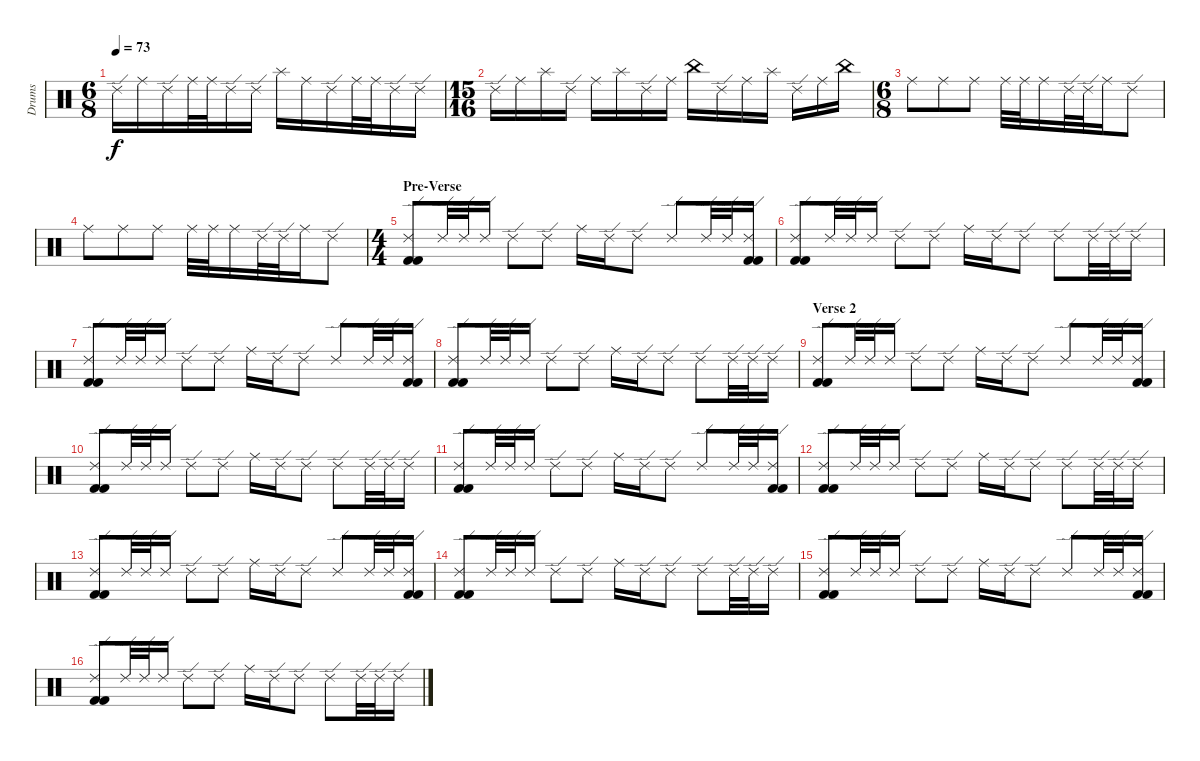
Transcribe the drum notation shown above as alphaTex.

\track ("Drums" "Drums") {instrument percussion}
\staff {score}
\articulation defaults
\ts (6 8)
\tempo 73
\clef neutral
\ks c "Ride (edge) 2".16{dy f} "Ride (middle)".16 "Ride (edge) 2".16 "Ride (middle)".32 "Ride (middle)".32 "Ride (edge) 2".16 "Ride (edge) 2".16 "Splash (hit)".16 "Ride (middle)".16 "Ride (edge) 2".16 "Ride (middle)".32 "Ride (middle)".32 "Ride (edge) 2".16 "Ride (edge) 2".16
|
\ts (15 16)
"Ride (edge) 2".16 "Ride (middle)".16 "Splash (hit)".16 "Ride (edge) 2".16 "Ride (middle)".16 "Splash (hit)".16 "Ride (edge) 2".16 "Ride (middle)".16 "China (hit)".16 "Ride (edge) 2".16 "Ride (middle)".16 "Splash (hit)".16 "Ride (edge) 2".16 "Ride (middle)".16 "China (hit)".16 |
\ts (6 8)
"Ride (middle)".8 "Ride (middle)".8 "Ride (middle)".8 "Ride (middle)".32 "Ride (middle)".32 "Ride (middle)".16 "Ride (edge) 2".32 "Ride (edge) 2".32 "Ride (middle)".16 "Ride (edge) 2".8 |
"Ride (middle)".8 "Ride (middle)".8 "Ride (middle)".8 "Ride (middle)".32 "Ride (middle)".32 "Ride (middle)".16 "Ride (edge) 2".32 "Ride (edge) 2".32 "Ride (middle)".16 "Ride (edge) 2".8 |
\ts (4 4)
\section ("" "Pre-Verse")
("Ride (edge) 2" "Kick (hit) 2" "Kick (hit) 2").8 "Ride (edge) 2".32 "Ride (edge) 2".32 "Ride (edge) 2".16 "Ride (edge) 2".8 "Ride (edge) 2".8 "Ride (middle)".16 "Ride (edge) 2".16 "Ride (edge) 2".8 "Ride (edge) 2".8 "Ride (edge) 2".32 "Ride (edge) 2".32 ("Ride (edge) 2" "Kick (hit) 2" "Kick (hit) 2").16 |
("Ride (edge) 2" "Kick (hit) 2" "Kick (hit) 2").8 "Ride (edge) 2".32 "Ride (edge) 2".32 "Ride (edge) 2".16 "Ride (edge) 2".8 "Ride (edge) 2".8 "Ride (middle)".16 "Ride (edge) 2".16 "Ride (edge) 2".8 "Ride (edge) 2".8 "Ride (edge) 2".32 "Ride (edge) 2".32 "Ride (edge) 2".16 |
("Ride (edge) 2" "Kick (hit) 2" "Kick (hit) 2").8 "Ride (edge) 2".32 "Ride (edge) 2".32 "Ride (edge) 2".16 "Ride (edge) 2".8 "Ride (edge) 2".8 "Ride (middle)".16 "Ride (edge) 2".16 "Ride (edge) 2".8 "Ride (edge) 2".8 "Ride (edge) 2".32 "Ride (edge) 2".32 ("Ride (edge) 2" "Kick (hit) 2" "Kick (hit) 2").16 |
("Ride (edge) 2" "Kick (hit) 2" "Kick (hit) 2").8 "Ride (edge) 2".32 "Ride (edge) 2".32 "Ride (edge) 2".16 "Ride (edge) 2".8 "Ride (edge) 2".8 "Ride (middle)".16 "Ride (edge) 2".16 "Ride (edge) 2".8 "Ride (edge) 2".8 "Ride (edge) 2".32 "Ride (edge) 2".32 "Ride (edge) 2".16 |
\section ("" "Verse 2")
("Ride (edge) 2" "Kick (hit) 2" "Kick (hit) 2").8 "Ride (edge) 2".32 "Ride (edge) 2".32 "Ride (edge) 2".16 "Ride (edge) 2".8 "Ride (edge) 2".8 "Ride (middle)".16 "Ride (edge) 2".16 "Ride (edge) 2".8 "Ride (edge) 2".8 "Ride (edge) 2".32 "Ride (edge) 2".32 ("Ride (edge) 2" "Kick (hit) 2" "Kick (hit) 2").16 |
("Ride (edge) 2" "Kick (hit) 2" "Kick (hit) 2").8 "Ride (edge) 2".32 "Ride (edge) 2".32 "Ride (edge) 2".16 "Ride (edge) 2".8 "Ride (edge) 2".8 "Ride (middle)".16 "Ride (edge) 2".16 "Ride (edge) 2".8 "Ride (edge) 2".8 "Ride (edge) 2".32 "Ride (edge) 2".32 "Ride (edge) 2".16 |
("Ride (edge) 2" "Kick (hit) 2" "Kick (hit) 2").8 "Ride (edge) 2".32 "Ride (edge) 2".32 "Ride (edge) 2".16 "Ride (edge) 2".8 "Ride (edge) 2".8 "Ride (middle)".16 "Ride (edge) 2".16 "Ride (edge) 2".8 "Ride (edge) 2".8 "Ride (edge) 2".32 "Ride (edge) 2".32 ("Ride (edge) 2" "Kick (hit) 2" "Kick (hit) 2").16 |
("Ride (edge) 2" "Kick (hit) 2" "Kick (hit) 2").8 "Ride (edge) 2".32 "Ride (edge) 2".32 "Ride (edge) 2".16 "Ride (edge) 2".8 "Ride (edge) 2".8 "Ride (middle)".16 "Ride (edge) 2".16 "Ride (edge) 2".8 "Ride (edge) 2".8 "Ride (edge) 2".32 "Ride (edge) 2".32 "Ride (edge) 2".16 |
("Ride (edge) 2" "Kick (hit) 2" "Kick (hit) 2").8 "Ride (edge) 2".32 "Ride (edge) 2".32 "Ride (edge) 2".16 "Ride (edge) 2".8 "Ride (edge) 2".8 "Ride (middle)".16 "Ride (edge) 2".16 "Ride (edge) 2".8 "Ride (edge) 2".8 "Ride (edge) 2".32 "Ride (edge) 2".32 ("Ride (edge) 2" "Kick (hit) 2" "Kick (hit) 2").16 |
("Ride (edge) 2" "Kick (hit) 2" "Kick (hit) 2").8 "Ride (edge) 2".32 "Ride (edge) 2".32 "Ride (edge) 2".16 "Ride (edge) 2".8 "Ride (edge) 2".8 "Ride (middle)".16 "Ride (edge) 2".16 "Ride (edge) 2".8 "Ride (edge) 2".8 "Ride (edge) 2".32 "Ride (edge) 2".32 "Ride (edge) 2".16 |
("Ride (edge) 2" "Kick (hit) 2" "Kick (hit) 2").8 "Ride (edge) 2".32 "Ride (edge) 2".32 "Ride (edge) 2".16 "Ride (edge) 2".8 "Ride (edge) 2".8 "Ride (middle)".16 "Ride (edge) 2".16 "Ride (edge) 2".8 "Ride (edge) 2".8 "Ride (edge) 2".32 "Ride (edge) 2".32 ("Ride (edge) 2" "Kick (hit) 2" "Kick (hit) 2").16 |
("Ride (edge) 2" "Kick (hit) 2" "Kick (hit) 2").8 "Ride (edge) 2".32 "Ride (edge) 2".32 "Ride (edge) 2".16 "Ride (edge) 2".8 "Ride (edge) 2".8 "Ride (middle)".16 "Ride (edge) 2".16 "Ride (edge) 2".8 "Ride (edge) 2".8 "Ride (edge) 2".32 "Ride (edge) 2".32 "Ride (edge) 2".16
